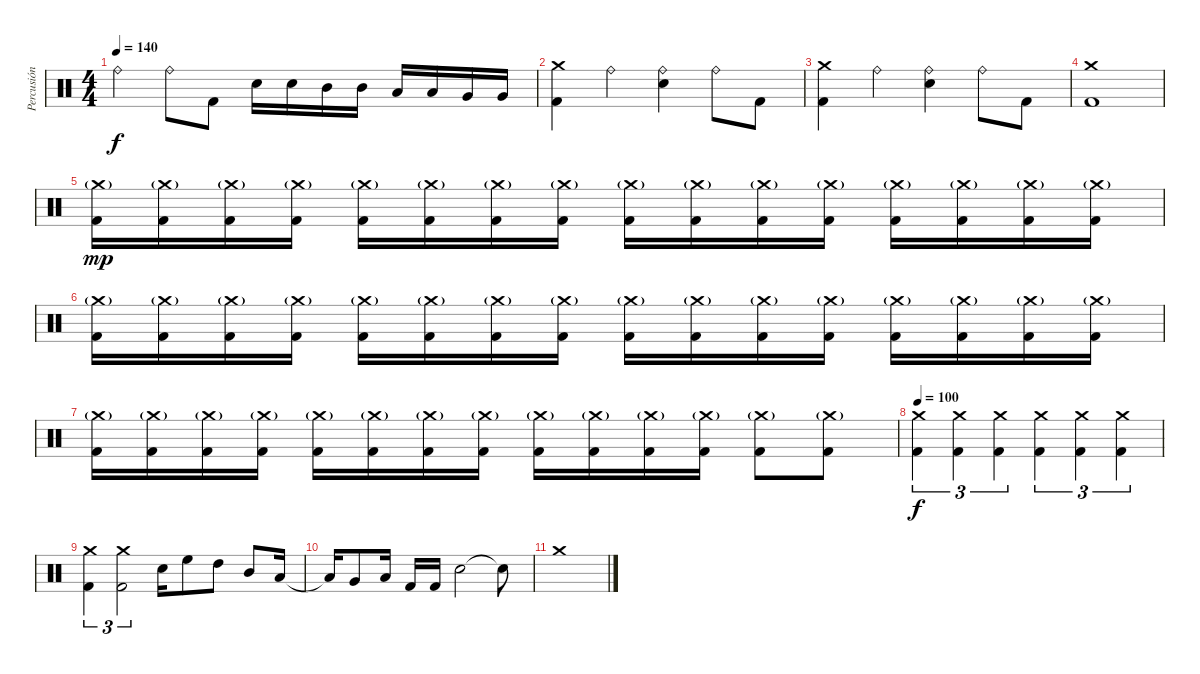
\track ("Percusión" "Percusión") {instrument percussion}
\staff {score}
\articulation defaults
\ts (4 4)
\tempo 140
\clef neutral
\ks c "Ride (bell)".4{dy f} "Ride (bell)".8 "Kick (hit) 2".8 "Electric Snare (hit)".16 "Electric Snare (hit)".16 "Mid Tom (hit)".16 "Mid Tom (hit)".16 "Low Tom (hit)".16 "Low Tom (hit)".16 "Very Low Tom (hit)".16 "Very Low Tom (hit)".16
|
("Crash medium (hit)" "Kick (hit) 2").4 "Ride (bell)".4 ("Ride (bell)" "Electric Snare (hit)").4 "Ride (bell)".8 "Kick (hit) 2".8 |
("Crash medium (hit)" "Kick (hit) 2").4 "Ride (bell)".4 ("Ride (bell)" "Electric Snare (hit)").4 "Ride (bell)".8 "Kick (hit) 2".8 |
("Crash medium (hit)" "Kick (hit) 2").1 |
("Crash medium (hit)"{g} "Kick (hit) 2").16{dy mp} ("Crash medium (hit)"{g} "Kick (hit) 2").16 ("Crash medium (hit)"{g} "Kick (hit) 2").16 ("Crash medium (hit)"{g} "Kick (hit) 2").16 ("Crash medium (hit)"{g} "Kick (hit) 2").16 ("Crash medium (hit)"{g} "Kick (hit) 2").16 ("Crash medium (hit)"{g} "Kick (hit) 2").16 ("Crash medium (hit)"{g} "Kick (hit) 2").16 ("Crash medium (hit)"{g} "Kick (hit) 2").16 ("Crash medium (hit)"{g} "Kick (hit) 2").16 ("Crash medium (hit)"{g} "Kick (hit) 2").16 ("Crash medium (hit)"{g} "Kick (hit) 2").16 ("Crash medium (hit)"{g} "Kick (hit) 2").16 ("Crash medium (hit)"{g} "Kick (hit) 2").16 ("Crash medium (hit)"{g} "Kick (hit) 2").16 ("Crash medium (hit)"{g} "Kick (hit) 2").16 |
("Crash medium (hit)"{g} "Kick (hit) 2").16 ("Crash medium (hit)"{g} "Kick (hit) 2").16 ("Crash medium (hit)"{g} "Kick (hit) 2").16 ("Crash medium (hit)"{g} "Kick (hit) 2").16 ("Crash medium (hit)"{g} "Kick (hit) 2").16 ("Crash medium (hit)"{g} "Kick (hit) 2").16 ("Crash medium (hit)"{g} "Kick (hit) 2").16 ("Crash medium (hit)"{g} "Kick (hit) 2").16 ("Crash medium (hit)"{g} "Kick (hit) 2").16 ("Crash medium (hit)"{g} "Kick (hit) 2").16 ("Crash medium (hit)"{g} "Kick (hit) 2").16 ("Crash medium (hit)"{g} "Kick (hit) 2").16 ("Crash medium (hit)"{g} "Kick (hit) 2").16 ("Crash medium (hit)"{g} "Kick (hit) 2").16 ("Crash medium (hit)"{g} "Kick (hit) 2").16 ("Crash medium (hit)"{g} "Kick (hit) 2").16 |
("Crash medium (hit)"{g} "Kick (hit) 2").16 ("Crash medium (hit)"{g} "Kick (hit) 2").16 ("Crash medium (hit)"{g} "Kick (hit) 2").16 ("Crash medium (hit)"{g} "Kick (hit) 2").16 ("Crash medium (hit)"{g} "Kick (hit) 2").16 ("Crash medium (hit)"{g} "Kick (hit) 2").16 ("Crash medium (hit)"{g} "Kick (hit) 2").16 ("Crash medium (hit)"{g} "Kick (hit) 2").16 ("Crash medium (hit)"{g} "Kick (hit) 2").16 ("Crash medium (hit)"{g} "Kick (hit) 2").16 ("Crash medium (hit)"{g} "Kick (hit) 2").16 ("Crash medium (hit)"{g} "Kick (hit) 2").16 ("Crash medium (hit)"{g} "Kick (hit) 2").8 ("Crash medium (hit)"{g} "Kick (hit) 2").8 |
\tempo 100
("Crash medium (hit)" "Kick (hit) 2").4{tu (3 2) dy f} ("Crash medium (hit)" "Kick (hit) 2").4{tu (3 2)} ("Crash medium (hit)" "Kick (hit) 2").4{tu (3 2)} ("Crash medium (hit)" "Kick (hit) 2").4{tu (3 2)} ("Crash medium (hit)" "Kick (hit) 2").4{tu (3 2)} ("Crash medium (hit)" "Kick (hit) 2").4{tu (3 2)} |
("Crash medium (hit)" "Kick (hit) 2").4{tu (3 2)} ("Crash medium (hit)" "Kick (hit) 2").2{tu (3 2)} "Electric Snare (hit)".16 "High Floor Tom (hit)".8 "High Tom (hit)".8 "Mid Tom (hit)".8 "Low Tom (hit)".16 |
"Low Floor Tom (hit)"{t}.16 "Very Low Tom (hit)".8 "Low Floor Tom (hit)".16 "Kick (hit) 2".16 "Kick (hit) 2".16 "Electric Snare (hit)".2 "Snare (hit)"{t}.8 |
"Crash medium (hit)".1
